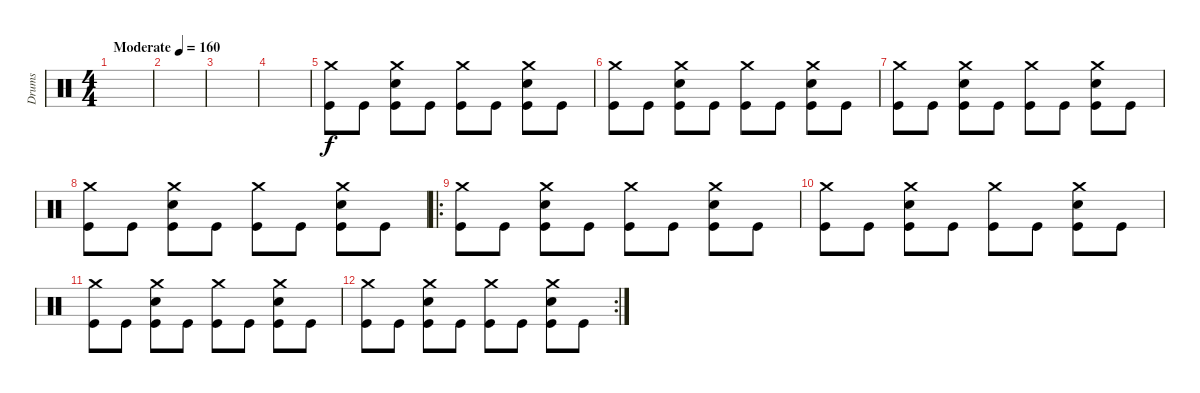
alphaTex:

\track ("Drums" "Drums") {instrument percussion}
\staff {score}
\articulation defaults
\ts (4 4)
\tempo (160 "Moderate")
\clef neutral
\ks c
|
|
|
|
("Crash medium (hit)" "Kick (hit)").8 "Kick (hit)".8 ("Crash medium (hit)" "Snare (hit) 2" "Kick (hit)").8 "Kick (hit)".8 ("Crash medium (hit)" "Kick (hit)").8 "Kick (hit)".8 ("Crash medium (hit)" "Snare (hit) 2" "Kick (hit)").8 "Kick (hit)".8 |
("Crash medium (hit)" "Kick (hit)").8 "Kick (hit)".8 ("Crash medium (hit)" "Snare (hit) 2" "Kick (hit)").8 "Kick (hit)".8 ("Crash medium (hit)" "Kick (hit)").8 "Kick (hit)".8 ("Crash medium (hit)" "Snare (hit) 2" "Kick (hit)").8 "Kick (hit)".8 |
("Crash medium (hit)" "Kick (hit)").8 "Kick (hit)".8 ("Crash medium (hit)" "Snare (hit) 2" "Kick (hit)").8 "Kick (hit)".8 ("Crash medium (hit)" "Kick (hit)").8 "Kick (hit)".8 ("Crash medium (hit)" "Snare (hit) 2" "Kick (hit)").8 "Kick (hit)".8 |
("Crash medium (hit)" "Kick (hit)").8 "Kick (hit)".8 ("Crash medium (hit)" "Snare (hit) 2" "Kick (hit)").8 "Kick (hit)".8 ("Crash medium (hit)" "Kick (hit)").8 "Kick (hit)".8 ("Crash medium (hit)" "Snare (hit) 2" "Kick (hit)").8 "Kick (hit)".8 |
\ro
("Crash medium (hit)" "Kick (hit)").8 "Kick (hit)".8 ("Crash medium (hit)" "Snare (hit) 2" "Kick (hit)").8 "Kick (hit)".8 ("Crash medium (hit)" "Kick (hit)").8 "Kick (hit)".8 ("Crash medium (hit)" "Snare (hit) 2" "Kick (hit)").8 "Kick (hit)".8 |
("Crash medium (hit)" "Kick (hit)").8 "Kick (hit)".8 ("Crash medium (hit)" "Snare (hit) 2" "Kick (hit)").8 "Kick (hit)".8 ("Crash medium (hit)" "Kick (hit)").8 "Kick (hit)".8 ("Crash medium (hit)" "Snare (hit) 2" "Kick (hit)").8 "Kick (hit)".8 |
("Crash medium (hit)" "Kick (hit)").8 "Kick (hit)".8 ("Crash medium (hit)" "Snare (hit) 2" "Kick (hit)").8 "Kick (hit)".8 ("Crash medium (hit)" "Kick (hit)").8 "Kick (hit)".8 ("Crash medium (hit)" "Snare (hit) 2" "Kick (hit)").8 "Kick (hit)".8 |
\rc 2
("Crash medium (hit)" "Kick (hit)").8 "Kick (hit)".8 ("Crash medium (hit)" "Snare (hit) 2" "Kick (hit)").8 "Kick (hit)".8 ("Crash medium (hit)" "Kick (hit)").8 "Kick (hit)".8 ("Crash medium (hit)" "Snare (hit) 2" "Kick (hit)").8 "Kick (hit)".8
